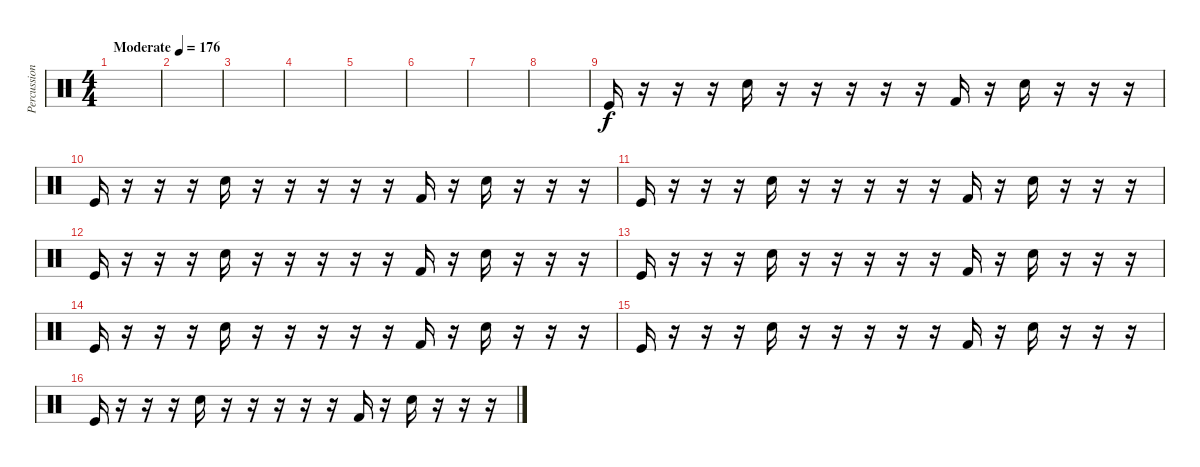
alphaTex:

\track ("Percussion" "Percussion") {instrument percussion}
\staff {score}
\articulation defaults
\ts (4 4)
\tempo (176 "Moderate")
\clef neutral
\ks c
|
|
|
|
|
|
|
|
"Kick (hit)".16 r.16 r.16 r.16 "Electric Snare (hit)".16 r.16 r.16 r.16 r.16 r.16 "Kick (hit) 2".16 r.16 "Electric Snare (hit)".16 r.16 r.16 r.16 |
"Kick (hit)".16 r.16 r.16 r.16 "Electric Snare (hit)".16 r.16 r.16 r.16 r.16 r.16 "Kick (hit) 2".16 r.16 "Electric Snare (hit)".16 r.16 r.16 r.16 |
"Kick (hit)".16 r.16 r.16 r.16 "Electric Snare (hit)".16 r.16 r.16 r.16 r.16 r.16 "Kick (hit) 2".16 r.16 "Electric Snare (hit)".16 r.16 r.16 r.16 |
"Kick (hit)".16 r.16 r.16 r.16 "Electric Snare (hit)".16 r.16 r.16 r.16 r.16 r.16 "Kick (hit) 2".16 r.16 "Electric Snare (hit)".16 r.16 r.16 r.16 |
"Kick (hit)".16 r.16 r.16 r.16 "Electric Snare (hit)".16 r.16 r.16 r.16 r.16 r.16 "Kick (hit) 2".16 r.16 "Electric Snare (hit)".16 r.16 r.16 r.16 |
"Kick (hit)".16 r.16 r.16 r.16 "Electric Snare (hit)".16 r.16 r.16 r.16 r.16 r.16 "Kick (hit) 2".16 r.16 "Electric Snare (hit)".16 r.16 r.16 r.16 |
"Kick (hit)".16 r.16 r.16 r.16 "Electric Snare (hit)".16 r.16 r.16 r.16 r.16 r.16 "Kick (hit) 2".16 r.16 "Electric Snare (hit)".16 r.16 r.16 r.16 |
"Kick (hit)".16 r.16 r.16 r.16 "Electric Snare (hit)".16 r.16 r.16 r.16 r.16 r.16 "Kick (hit) 2".16 r.16 "Electric Snare (hit)".16 r.16 r.16 r.16
